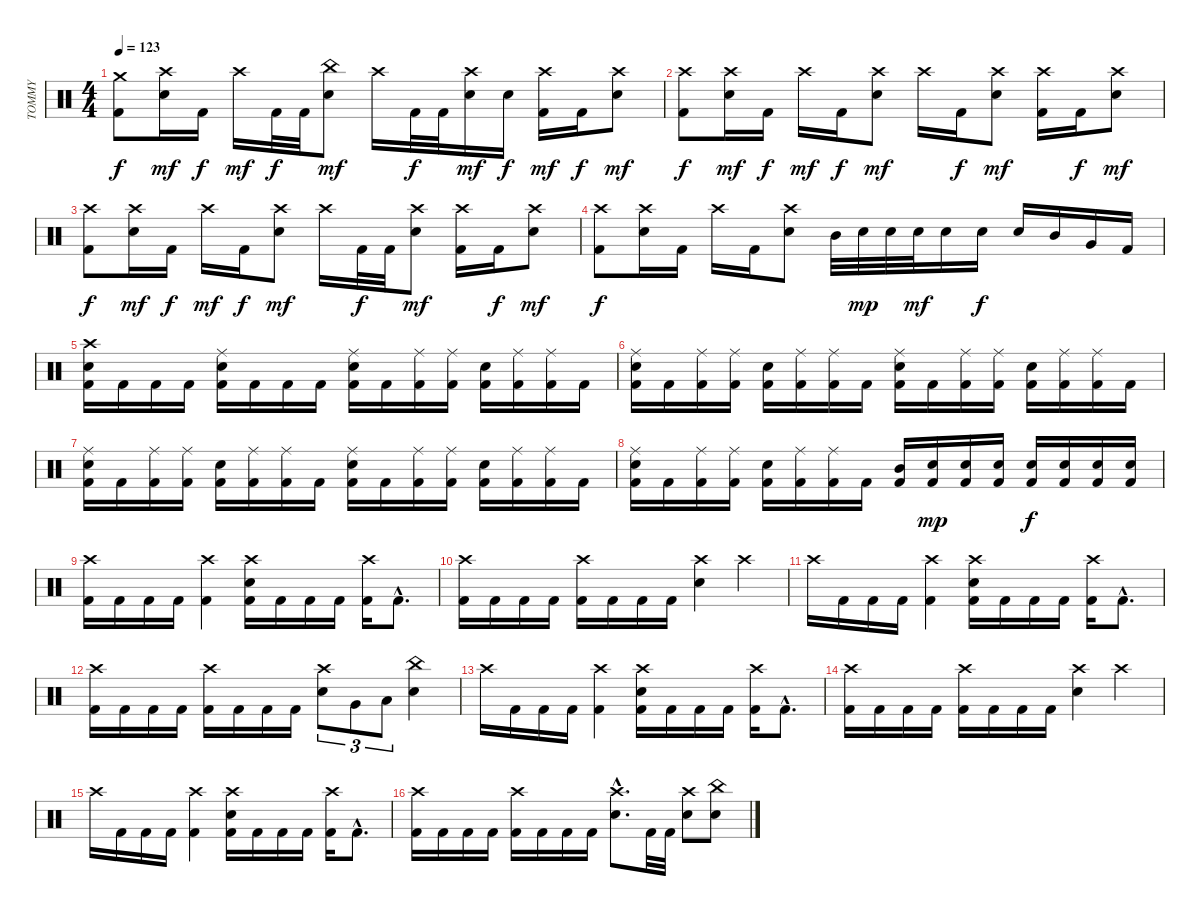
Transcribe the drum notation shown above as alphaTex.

\track ("TOMMY" "TOMMY") {instrument percussion}
\staff {score}
\articulation defaults
\ts (4 4)
\tempo 123
\clef neutral
\ks c
("Kick (hit) 2" "Crash medium (hit)").8{dy f} ("Snare (hit) 2" "Crash high (hit)").16{dy mf} "Kick (hit) 2".16{dy f} "Crash high (hit)".16{dy mf} "Kick (hit) 2".32{dy f} "Kick (hit) 2".32 ("Snare (hit) 2" "China (hit)").8{dy mf} "Crash high (hit)".16 "Kick (hit) 2".32{dy f} "Kick (hit) 2".32 ("Snare (hit) 2" "Crash high (hit)").16{dy mf} "Snare (hit) 2".16{dy f} ("Kick (hit) 2" "Crash high (hit)").16{dy mf} "Kick (hit) 2".16{dy f} ("Snare (hit) 2" "Crash high (hit)").8{dy mf} |
("Kick (hit) 2" "Crash high (hit)").8{dy f} ("Snare (hit) 2" "Crash high (hit)").16{dy mf} "Kick (hit) 2".16{dy f} "Crash high (hit)".16{dy mf} "Kick (hit) 2".16{dy f} ("Snare (hit) 2" "Crash high (hit)").8{dy mf} "Crash high (hit)".16 "Kick (hit) 2".16{dy f} ("Snare (hit) 2" "Crash high (hit)").8{dy mf} ("Kick (hit) 2" "Crash high (hit)").16 "Kick (hit) 2".16{dy f} ("Snare (hit) 2" "Crash high (hit)").8{dy mf} |
("Kick (hit) 2" "Crash high (hit)").8{dy f} ("Snare (hit) 2" "Crash high (hit)").16{dy mf} "Kick (hit) 2".16{dy f} "Crash high (hit)".16{dy mf} "Kick (hit) 2".16{dy f} ("Snare (hit) 2" "Crash high (hit)").8{dy mf} "Crash high (hit)".16 "Kick (hit) 2".32{dy f} "Kick (hit) 2".32 ("Snare (hit) 2" "Crash high (hit)").8{dy mf} ("Kick (hit) 2" "Crash high (hit)").16 "Kick (hit) 2".16{dy f} ("Snare (hit) 2" "Crash high (hit)").8{dy mf} |
("Kick (hit) 2" "Crash high (hit)").8{dy f} ("Snare (hit) 2" "Crash high (hit)").16 "Kick (hit) 2".16 "Crash high (hit)".16 "Kick (hit) 2".16 ("Snare (hit) 2" "Crash high (hit)").8 "Mid Tom (hit)".32 "Snare (hit) 2".32{dy mp} "Snare (hit) 2".32 "Snare (hit) 2".32{dy mf} "Snare (hit) 2".16 "Snare (hit) 2".16{dy f} "Snare (hit) 2".16 "Mid Tom (hit)".16 "Very Low Tom (hit)".16 "Kick (hit) 2".16 |
("Snare (hit) 2" "Kick (hit) 2" "Crash high (hit)").16 "Kick (hit) 2".16 "Kick (hit) 2".16 "Kick (hit) 2".16 ("Snare (hit) 2" "Kick (hit) 2" "Ride (middle)").16 "Kick (hit) 2".16 "Kick (hit) 2".16 "Kick (hit) 2".16 ("Snare (hit) 2" "Kick (hit) 2" "Ride (middle)").16 "Kick (hit) 2".16 ("Kick (hit) 2" "Ride (middle)").16 ("Kick (hit) 2" "Ride (middle)").16 ("Snare (hit) 2" "Kick (hit) 2").16 ("Kick (hit) 2" "Ride (middle)").16 ("Kick (hit) 2" "Ride (middle)").16 "Kick (hit) 2".16 |
("Snare (hit) 2" "Kick (hit) 2" "Ride (middle)").16 "Kick (hit) 2".16 ("Kick (hit) 2" "Ride (middle)").16 ("Kick (hit) 2" "Ride (middle)").16 ("Snare (hit) 2" "Kick (hit) 2").16 ("Kick (hit) 2" "Ride (middle)").16 ("Kick (hit) 2" "Ride (middle)").16 "Kick (hit) 2".16 ("Snare (hit) 2" "Kick (hit) 2" "Ride (middle)").16 "Kick (hit) 2".16 ("Kick (hit) 2" "Ride (middle)").16 ("Kick (hit) 2" "Ride (middle)").16 ("Snare (hit) 2" "Kick (hit) 2").16 ("Kick (hit) 2" "Ride (middle)").16 ("Kick (hit) 2" "Ride (middle)").16 "Kick (hit) 2".16 |
("Snare (hit) 2" "Kick (hit) 2" "Ride (middle)").16 "Kick (hit) 2".16 ("Kick (hit) 2" "Ride (middle)").16 ("Kick (hit) 2" "Ride (middle)").16 ("Snare (hit) 2" "Kick (hit) 2").16 ("Kick (hit) 2" "Ride (middle)").16 ("Kick (hit) 2" "Ride (middle)").16 "Kick (hit) 2".16 ("Snare (hit) 2" "Kick (hit) 2" "Ride (middle)").16 "Kick (hit) 2".16 ("Kick (hit) 2" "Ride (middle)").16 ("Kick (hit) 2" "Ride (middle)").16 ("Snare (hit) 2" "Kick (hit) 2").16 ("Kick (hit) 2" "Ride (middle)").16 ("Kick (hit) 2" "Ride (middle)").16 "Kick (hit) 2".16 |
("Snare (hit) 2" "Kick (hit) 2" "Ride (middle)").16 "Kick (hit) 2".16 ("Kick (hit) 2" "Ride (middle)").16 ("Kick (hit) 2" "Ride (middle)").16 ("Snare (hit) 2" "Kick (hit) 2").16 ("Kick (hit) 2" "Ride (middle)").16 ("Kick (hit) 2" "Ride (middle)").16 "Kick (hit) 2".16 ("Kick (hit) 2" "Mid Tom (hit)").16 ("Snare (hit) 2" "Kick (hit) 2").16{dy mp} ("Snare (hit) 2" "Kick (hit) 2").16 ("Snare (hit) 2" "Kick (hit) 2").16 ("Snare (hit) 2" "Kick (hit) 2").16{dy f} ("Snare (hit) 2" "Kick (hit) 2").16 ("Snare (hit) 2" "Kick (hit) 2").16 ("Snare (hit) 2" "Kick (hit) 2").16 |
("Kick (hit) 2" "Crash high (hit)").16 "Kick (hit) 2".16 "Kick (hit) 2".16 "Kick (hit) 2".16 ("Kick (hit) 2" "Crash high (hit)").4 ("Snare (hit) 2" "Kick (hit) 2" "Crash high (hit)").16 "Kick (hit) 2".16 "Kick (hit) 2".16 "Kick (hit) 2".16 ("Kick (hit) 2" "Crash high (hit)").16 "Kick (hit) 2"{hac}.8{d} |
("Kick (hit) 2" "Crash high (hit)").16 "Kick (hit) 2".16 "Kick (hit) 2".16 "Kick (hit) 2".16 ("Kick (hit) 2" "Crash high (hit)").16 "Kick (hit) 2".16 "Kick (hit) 2".16 "Kick (hit) 2".16 ("Snare (hit) 2" "Crash high (hit)").4 "Crash high (hit)".4 |
"Crash high (hit)".16 "Kick (hit) 2".16 "Kick (hit) 2".16 "Kick (hit) 2".16 ("Kick (hit) 2" "Crash high (hit)").4 ("Snare (hit) 2" "Kick (hit) 2" "Crash high (hit)").16 "Kick (hit) 2".16 "Kick (hit) 2".16 "Kick (hit) 2".16 ("Kick (hit) 2" "Crash high (hit)").16 "Kick (hit) 2"{hac}.8{d} |
("Kick (hit) 2" "Crash high (hit)").16 "Kick (hit) 2".16 "Kick (hit) 2".16 "Kick (hit) 2".16 ("Kick (hit) 2" "Crash high (hit)").16 "Kick (hit) 2".16 "Kick (hit) 2".16 "Kick (hit) 2".16 ("Snare (hit) 2" "Crash high (hit)").8{tu (3 2)} "Very Low Tom (hit)".8{tu (3 2)} "Low Floor Tom (hit)".8{tu (3 2)} ("Snare (hit) 2" "China (hit)").4 |
"Crash high (hit)".16 "Kick (hit) 2".16 "Kick (hit) 2".16 "Kick (hit) 2".16 ("Kick (hit) 2" "Crash high (hit)").4 ("Snare (hit) 2" "Kick (hit) 2" "Crash high (hit)").16 "Kick (hit) 2".16 "Kick (hit) 2".16 "Kick (hit) 2".16 ("Kick (hit) 2" "Crash high (hit)").16 "Kick (hit) 2"{hac}.8{d} |
("Kick (hit) 2" "Crash high (hit)").16 "Kick (hit) 2".16 "Kick (hit) 2".16 "Kick (hit) 2".16 ("Kick (hit) 2" "Crash high (hit)").16 "Kick (hit) 2".16 "Kick (hit) 2".16 "Kick (hit) 2".16 ("Snare (hit) 2" "Crash high (hit)").4 "Crash high (hit)".4 |
"Crash high (hit)".16 "Kick (hit) 2".16 "Kick (hit) 2".16 "Kick (hit) 2".16 ("Kick (hit) 2" "Crash high (hit)").4 ("Snare (hit) 2" "Kick (hit) 2" "Crash high (hit)").16 "Kick (hit) 2".16 "Kick (hit) 2".16 "Kick (hit) 2".16 ("Kick (hit) 2" "Crash high (hit)").16 "Kick (hit) 2"{hac}.8{d} |
("Kick (hit) 2" "Crash high (hit)").16 "Kick (hit) 2".16 "Kick (hit) 2".16 "Kick (hit) 2".16 ("Kick (hit) 2" "Crash high (hit)").16 "Kick (hit) 2".16 "Kick (hit) 2".16 "Kick (hit) 2".16 ("Snare (hit) 2"{hac} "Crash high (hit)"{hac}).8{d} "Kick (hit) 2".32 "Kick (hit) 2".32 ("Snare (hit) 2" "Crash high (hit)").8 ("Snare (hit) 2" "China (hit)").8
